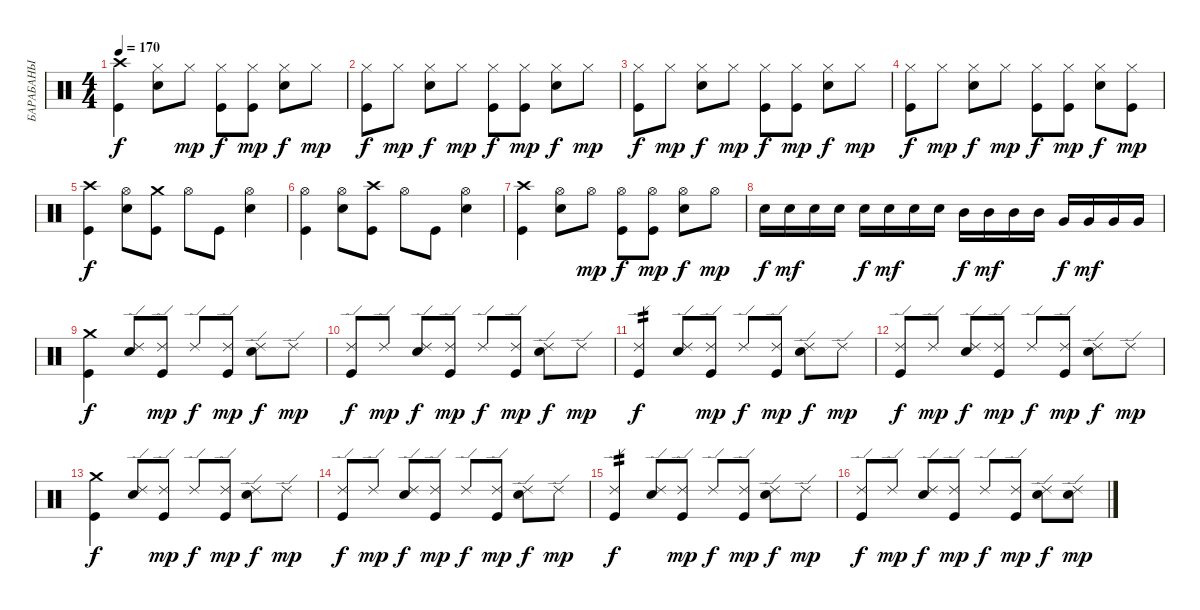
\track ("БАРАБАНЫ" "БАРАБАНЫ") {instrument percussion}
\staff {score}
\articulation defaults
\ts (4 4)
\tempo 170
\clef neutral
\ks c
("Crash high (hit)" "Kick (hit)").4{dy f} ("Hi-Hat (closed)" "Electric Snare (hit)").8 "Hi-Hat (closed)".8{dy mp} ("Hi-Hat (closed)" "Kick (hit)").8{dy f} ("Hi-Hat (closed)" "Kick (hit)").8{dy mp} ("Hi-Hat (closed)" "Electric Snare (hit)").8{dy f} "Hi-Hat (closed)".8{dy mp} |
("Hi-Hat (closed)" "Kick (hit)").8{dy f} "Hi-Hat (closed)".8{dy mp} ("Hi-Hat (closed)" "Electric Snare (hit)").8{dy f} "Hi-Hat (closed)".8{dy mp} ("Hi-Hat (closed)" "Kick (hit)").8{dy f} ("Hi-Hat (closed)" "Kick (hit)").8{dy mp} ("Hi-Hat (closed)" "Electric Snare (hit)").8{dy f} "Hi-Hat (closed)".8{dy mp} |
("Hi-Hat (closed)" "Kick (hit)").8{dy f} "Hi-Hat (closed)".8{dy mp} ("Hi-Hat (closed)" "Electric Snare (hit)").8{dy f} "Hi-Hat (closed)".8{dy mp} ("Hi-Hat (closed)" "Kick (hit)").8{dy f} ("Hi-Hat (closed)" "Kick (hit)").8{dy mp} ("Hi-Hat (closed)" "Electric Snare (hit)").8{dy f} "Hi-Hat (closed)".8{dy mp} |
("Hi-Hat (closed)" "Kick (hit)").8{dy f} "Hi-Hat (closed)".8{dy mp} ("Hi-Hat (closed)" "Electric Snare (hit)").8{dy f} "Hi-Hat (closed)".8{dy mp} ("Hi-Hat (closed)" "Kick (hit)").8{dy f} ("Hi-Hat (closed)" "Kick (hit)").8{dy mp} ("Hi-Hat (closed)" "Electric Snare (hit)").8{dy f} ("Hi-Hat (closed)" "Kick (hit)").8{dy mp} |
("Crash high (hit)" "Kick (hit)").4{dy f} ("Hi-Hat (open)" "Electric Snare (hit)").8 ("Crash medium (hit)" "Kick (hit)").8 "Hi-Hat (open)".8 "Kick (hit)".8 ("Hi-Hat (open)" "Electric Snare (hit)").4 |
("Hi-Hat (open)" "Kick (hit)").4 ("Hi-Hat (open)" "Electric Snare (hit)").8 ("Crash high (hit)" "Kick (hit)").8 "Hi-Hat (open)".8 "Kick (hit)".8 ("Hi-Hat (open)" "Electric Snare (hit)").4 |
("Crash high (hit)" "Kick (hit)").4 ("Hi-Hat (open)" "Electric Snare (hit)").8 "Hi-Hat (open)".8{dy mp} ("Hi-Hat (open)" "Kick (hit)").8{dy f} ("Hi-Hat (open)" "Kick (hit)").8{dy mp} ("Hi-Hat (open)" "Electric Snare (hit)").8{dy f} "Hi-Hat (open)".8{dy mp} |
"Electric Snare (hit)".16{dy f} "Electric Snare (hit)".16{dy mf} "Electric Snare (hit)".16 "Electric Snare (hit)".16 "Electric Snare (hit)".16{dy f} "Electric Snare (hit)".16{dy mf} "Electric Snare (hit)".16 "Electric Snare (hit)".16 "Mid Tom (hit)".16{dy f} "Mid Tom (hit)".16{dy mf} "Mid Tom (hit)".16 "Mid Tom (hit)".16 "Very Low Tom (hit)".16{dy f} "Very Low Tom (hit)".16{dy mf} "Very Low Tom (hit)".16 "Very Low Tom (hit)".16 |
("Crash medium (hit)" "Kick (hit)").4{dy f} ("Ride (edge) 2" "Electric Snare (hit)").8 ("Ride (edge) 2" "Kick (hit)").8{dy mp} "Ride (edge) 2".8{dy f} ("Ride (edge) 2" "Kick (hit)").8{dy mp} ("Ride (edge) 2" "Electric Snare (hit)").8{dy f} "Ride (edge) 2".8{dy mp} |
("Ride (edge) 2" "Kick (hit)").8{dy f} "Ride (edge) 2".8{dy mp} ("Ride (edge) 2" "Electric Snare (hit)").8{dy f} ("Ride (edge) 2" "Kick (hit)").8{dy mp} "Ride (edge) 2".8{dy f} ("Ride (edge) 2" "Kick (hit)").8{dy mp} ("Ride (edge) 2" "Electric Snare (hit)").8{dy f} "Ride (edge) 2".8{dy mp} |
("Ride (edge) 2" "Kick (hit)").4{tp 2 dy f} ("Ride (edge) 2" "Electric Snare (hit)").8 ("Ride (edge) 2" "Kick (hit)").8{dy mp} "Ride (edge) 2".8{dy f} ("Ride (edge) 2" "Kick (hit)").8{dy mp} ("Ride (edge) 2" "Electric Snare (hit)").8{dy f} "Ride (edge) 2".8{dy mp} |
("Ride (edge) 2" "Kick (hit)").8{dy f} "Ride (edge) 2".8{dy mp} ("Ride (edge) 2" "Electric Snare (hit)").8{dy f} ("Ride (edge) 2" "Kick (hit)").8{dy mp} "Ride (edge) 2".8{dy f} ("Ride (edge) 2" "Kick (hit)").8{dy mp} ("Ride (edge) 2" "Electric Snare (hit)").8{dy f} "Ride (edge) 2".8{dy mp} |
("Crash medium (hit)" "Kick (hit)").4{dy f} ("Ride (edge) 2" "Electric Snare (hit)").8 ("Ride (edge) 2" "Kick (hit)").8{dy mp} "Ride (edge) 2".8{dy f} ("Ride (edge) 2" "Kick (hit)").8{dy mp} ("Ride (edge) 2" "Electric Snare (hit)").8{dy f} "Ride (edge) 2".8{dy mp} |
("Ride (edge) 2" "Kick (hit)").8{dy f} "Ride (edge) 2".8{dy mp} ("Ride (edge) 2" "Electric Snare (hit)").8{dy f} ("Ride (edge) 2" "Kick (hit)").8{dy mp} "Ride (edge) 2".8{dy f} ("Ride (edge) 2" "Kick (hit)").8{dy mp} ("Ride (edge) 2" "Electric Snare (hit)").8{dy f} "Ride (edge) 2".8{dy mp} |
("Ride (edge) 2" "Kick (hit)").4{tp 2 dy f} ("Ride (edge) 2" "Electric Snare (hit)").8 ("Ride (edge) 2" "Kick (hit)").8{dy mp} "Ride (edge) 2".8{dy f} ("Ride (edge) 2" "Kick (hit)").8{dy mp} ("Ride (edge) 2" "Electric Snare (hit)").8{dy f} "Ride (edge) 2".8{dy mp} |
("Ride (edge) 2" "Kick (hit)").8{dy f} "Ride (edge) 2".8{dy mp} ("Ride (edge) 2" "Electric Snare (hit)").8{dy f} ("Ride (edge) 2" "Kick (hit)").8{dy mp} "Ride (edge) 2".8{dy f} ("Ride (edge) 2" "Kick (hit)").8{dy mp} ("Ride (edge) 2" "Electric Snare (hit)").8{dy f} ("Ride (edge) 2" "Electric Snare (hit)").8{dy mp}
